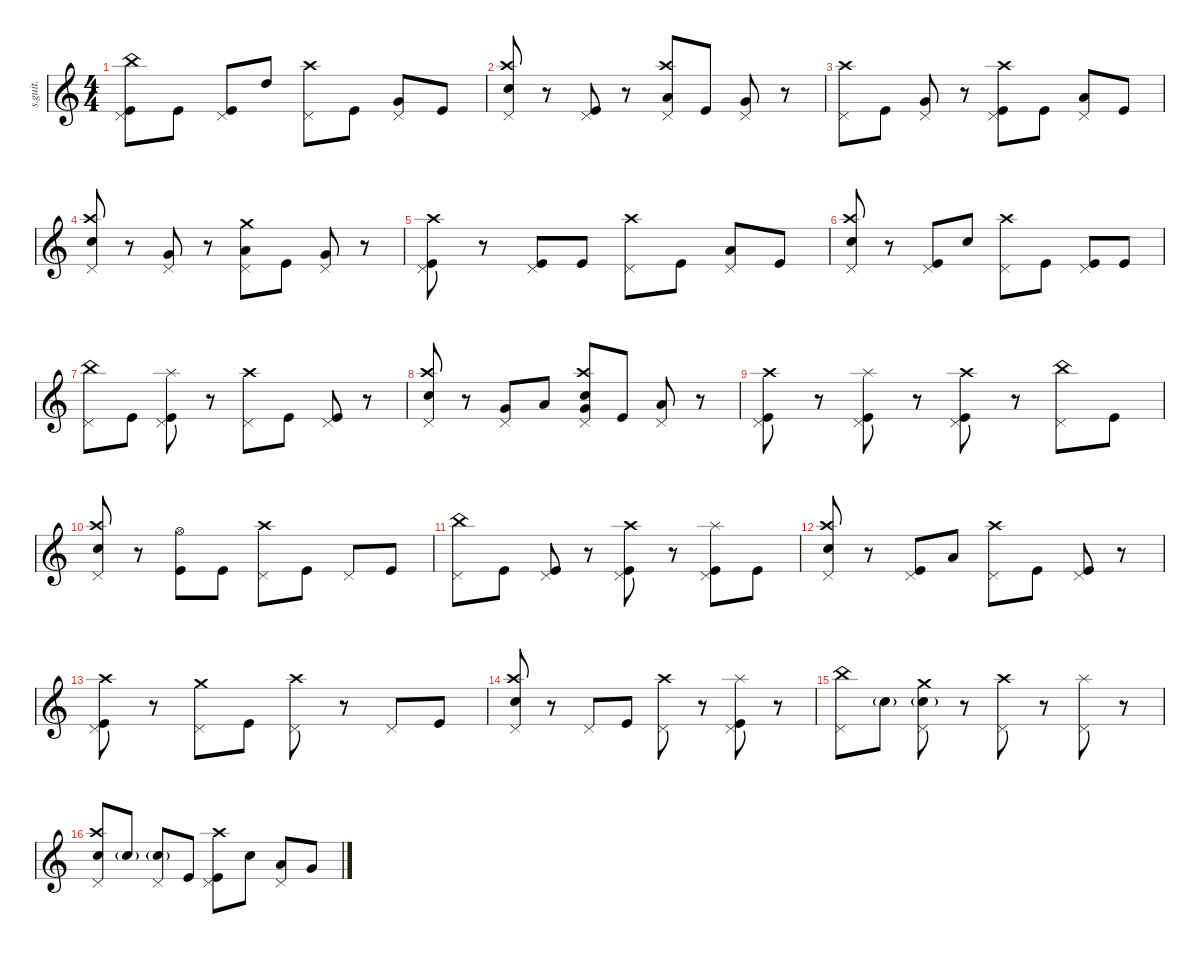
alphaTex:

\defaultSystemsLayout 4
\hideDynamics
\bracketExtendMode nobrackets
\track ("Matt Halpern" "s.guit.") {instrument percussion}
\staff {score}
\articulation defaults
\ts (4 4)
\tempo (213 hide)
\clef g2
\ks c
("China (hit)" "Pedal Hi-Hat (hit)" "Kick (hit)").8{lyrics (0 "") lyrics (1 "") lyrics (2 "") lyrics (3 "") lyrics (4 "") dy mf} "Kick (hit)".8{lyrics (0 "") lyrics (1 "") lyrics (2 "") lyrics (3 "") lyrics (4 "")} ("Pedal Hi-Hat (hit)" "Kick (hit)").8{lyrics (0 "") lyrics (1 "") lyrics (2 "") lyrics (3 "") lyrics (4 "")} "High Tom (hit)".8{lyrics (0 "") lyrics (1 "") lyrics (2 "") lyrics (3 "") lyrics (4 "")} ("Crash high (hit)" "Pedal Hi-Hat (hit)").8{lyrics (0 "") lyrics (1 "") lyrics (2 "") lyrics (3 "") lyrics (4 "")} "Kick (hit)".8{lyrics (0 "") lyrics (1 "") lyrics (2 "") lyrics (3 "") lyrics (4 "")} ("Pedal Hi-Hat (hit)" "Very Low Tom (hit)").8{lyrics (0 "") lyrics (1 "") lyrics (2 "") lyrics (3 "") lyrics (4 "")} "Kick (hit)".8{lyrics (0 "") lyrics (1 "") lyrics (2 "") lyrics (3 "") lyrics (4 "")} |
("Crash high (hit)" "Pedal Hi-Hat (hit)" "Snare (hit) 2").8{lyrics (0 "") lyrics (1 "") lyrics (2 "") lyrics (3 "") lyrics (4 "")} r.8 ("Pedal Hi-Hat (hit)" "Kick (hit)").8{lyrics (0 "") lyrics (1 "") lyrics (2 "") lyrics (3 "") lyrics (4 "")} r.8 ("Crash high (hit)" "Pedal Hi-Hat (hit)" "Low Tom (hit)").8{lyrics (0 "") lyrics (1 "") lyrics (2 "") lyrics (3 "") lyrics (4 "")} "Kick (hit)".8{lyrics (0 "") lyrics (1 "") lyrics (2 "") lyrics (3 "") lyrics (4 "")} ("Pedal Hi-Hat (hit)" "Very Low Tom (hit)").8{lyrics (0 "") lyrics (1 "") lyrics (2 "") lyrics (3 "") lyrics (4 "")} r.8 |
("Crash high (hit)" "Pedal Hi-Hat (hit)").8{lyrics (0 "") lyrics (1 "") lyrics (2 "") lyrics (3 "") lyrics (4 "")} "Kick (hit)".8{lyrics (0 "") lyrics (1 "") lyrics (2 "") lyrics (3 "") lyrics (4 "")} ("Pedal Hi-Hat (hit)" "Very Low Tom (hit)").8{lyrics (0 "") lyrics (1 "") lyrics (2 "") lyrics (3 "") lyrics (4 "")} r.8 ("Crash high (hit)" "Pedal Hi-Hat (hit)" "Kick (hit)").8{lyrics (0 "") lyrics (1 "") lyrics (2 "") lyrics (3 "") lyrics (4 "")} "Kick (hit)".8{lyrics (0 "") lyrics (1 "") lyrics (2 "") lyrics (3 "") lyrics (4 "")} ("Pedal Hi-Hat (hit)" "Low Tom (hit)").8{lyrics (0 "") lyrics (1 "") lyrics (2 "") lyrics (3 "") lyrics (4 "")} "Kick (hit)".8{lyrics (0 "") lyrics (1 "") lyrics (2 "") lyrics (3 "") lyrics (4 "")} |
("Crash high (hit)" "Pedal Hi-Hat (hit)" "Snare (hit) 2").8{lyrics (0 "") lyrics (1 "") lyrics (2 "") lyrics (3 "") lyrics (4 "")} r.8 ("Pedal Hi-Hat (hit)" "Very Low Tom (hit)").8{lyrics (0 "") lyrics (1 "") lyrics (2 "") lyrics (3 "") lyrics (4 "")} r.8 ("Crash medium (hit)" "Pedal Hi-Hat (hit)" "Low Tom (hit)").8{lyrics (0 "") lyrics (1 "") lyrics (2 "") lyrics (3 "") lyrics (4 "")} "Kick (hit)".8{lyrics (0 "") lyrics (1 "") lyrics (2 "") lyrics (3 "") lyrics (4 "")} ("Pedal Hi-Hat (hit)" "Very Low Tom (hit)").8{lyrics (0 "") lyrics (1 "") lyrics (2 "") lyrics (3 "") lyrics (4 "")} r.8 |
("Crash high (hit)" "Pedal Hi-Hat (hit)" "Kick (hit)").8{lyrics (0 "") lyrics (1 "") lyrics (2 "") lyrics (3 "") lyrics (4 "")} r.8 ("Pedal Hi-Hat (hit)" "Kick (hit)").8{lyrics (0 "") lyrics (1 "") lyrics (2 "") lyrics (3 "") lyrics (4 "")} "Kick (hit)".8{lyrics (0 "") lyrics (1 "") lyrics (2 "") lyrics (3 "") lyrics (4 "")} ("Crash high (hit)" "Pedal Hi-Hat (hit)").8{lyrics (0 "") lyrics (1 "") lyrics (2 "") lyrics (3 "") lyrics (4 "")} "Kick (hit)".8{lyrics (0 "") lyrics (1 "") lyrics (2 "") lyrics (3 "") lyrics (4 "")} ("Pedal Hi-Hat (hit)" "Low Tom (hit)").8{lyrics (0 "") lyrics (1 "") lyrics (2 "") lyrics (3 "") lyrics (4 "")} "Kick (hit)".8{lyrics (0 "") lyrics (1 "") lyrics (2 "") lyrics (3 "") lyrics (4 "")} |
("Crash high (hit)" "Pedal Hi-Hat (hit)" "Snare (hit) 2").8{lyrics (0 "") lyrics (1 "") lyrics (2 "") lyrics (3 "") lyrics (4 "")} r.8 ("Pedal Hi-Hat (hit)" "Kick (hit)").8{lyrics (0 "") lyrics (1 "") lyrics (2 "") lyrics (3 "") lyrics (4 "")} "Snare (hit) 2".8{lyrics (0 "") lyrics (1 "") lyrics (2 "") lyrics (3 "") lyrics (4 "")} ("Crash high (hit)" "Pedal Hi-Hat (hit)").8{lyrics (0 "") lyrics (1 "") lyrics (2 "") lyrics (3 "") lyrics (4 "")} "Kick (hit)".8{lyrics (0 "") lyrics (1 "") lyrics (2 "") lyrics (3 "") lyrics (4 "")} ("Pedal Hi-Hat (hit)" "Kick (hit)").8{lyrics (0 "") lyrics (1 "") lyrics (2 "") lyrics (3 "") lyrics (4 "")} "Kick (hit)".8{lyrics (0 "") lyrics (1 "") lyrics (2 "") lyrics (3 "") lyrics (4 "")} |
("China (hit)" "Pedal Hi-Hat (hit)").8{lyrics (0 "") lyrics (1 "") lyrics (2 "") lyrics (3 "") lyrics (4 "")} "Kick (hit)".8{lyrics (0 "") lyrics (1 "") lyrics (2 "") lyrics (3 "") lyrics (4 "")} ("Splash (hit)" "Pedal Hi-Hat (hit)" "Kick (hit)").8{lyrics (0 "") lyrics (1 "") lyrics (2 "") lyrics (3 "") lyrics (4 "")} r.8 ("Crash high (hit)" "Pedal Hi-Hat (hit)").8{lyrics (0 "") lyrics (1 "") lyrics (2 "") lyrics (3 "") lyrics (4 "")} "Kick (hit)".8{lyrics (0 "") lyrics (1 "") lyrics (2 "") lyrics (3 "") lyrics (4 "")} ("Pedal Hi-Hat (hit)" "Kick (hit)").8{lyrics (0 "") lyrics (1 "") lyrics (2 "") lyrics (3 "") lyrics (4 "")} r.8 |
("Crash high (hit)" "Pedal Hi-Hat (hit)" "Snare (hit) 2").8{lyrics (0 "") lyrics (1 "") lyrics (2 "") lyrics (3 "") lyrics (4 "")} r.8 ("Pedal Hi-Hat (hit)" "Very Low Tom (hit)").8{lyrics (0 "") lyrics (1 "") lyrics (2 "") lyrics (3 "") lyrics (4 "")} "Low Tom (hit)".8{lyrics (0 "") lyrics (1 "") lyrics (2 "") lyrics (3 "") lyrics (4 "")} ("Crash high (hit)" "Pedal Hi-Hat (hit)" "Snare (hit) 2" "Very Low Tom (hit)").8{lyrics (0 "") lyrics (1 "") lyrics (2 "") lyrics (3 "") lyrics (4 "")} "Kick (hit)".8{lyrics (0 "") lyrics (1 "") lyrics (2 "") lyrics (3 "") lyrics (4 "")} ("Pedal Hi-Hat (hit)" "Low Tom (hit)").8{lyrics (0 "") lyrics (1 "") lyrics (2 "") lyrics (3 "") lyrics (4 "")} r.8 |
("Crash high (hit)" "Pedal Hi-Hat (hit)" "Kick (hit)").8{lyrics (0 "") lyrics (1 "") lyrics (2 "") lyrics (3 "") lyrics (4 "")} r.8 ("Splash (hit)" "Pedal Hi-Hat (hit)" "Kick (hit)").8{lyrics (0 "") lyrics (1 "") lyrics (2 "") lyrics (3 "") lyrics (4 "")} r.8 ("Crash high (hit)" "Pedal Hi-Hat (hit)" "Kick (hit)").8{lyrics (0 "") lyrics (1 "") lyrics (2 "") lyrics (3 "") lyrics (4 "")} r.8 ("China (hit)" "Pedal Hi-Hat (hit)").8{lyrics (0 "") lyrics (1 "") lyrics (2 "") lyrics (3 "") lyrics (4 "")} "Kick (hit)".8{lyrics (0 "") lyrics (1 "") lyrics (2 "") lyrics (3 "") lyrics (4 "")} |
("Crash high (hit)" "Pedal Hi-Hat (hit)" "Snare (hit) 2").8{lyrics (0 "") lyrics (1 "") lyrics (2 "") lyrics (3 "") lyrics (4 "")} r.8 ("Hi-Hat (open)" "Kick (hit)").8{lyrics (0 "") lyrics (1 "") lyrics (2 "") lyrics (3 "") lyrics (4 "")} "Kick (hit)".8{lyrics (0 "") lyrics (1 "") lyrics (2 "") lyrics (3 "") lyrics (4 "")} ("Crash high (hit)" "Pedal Hi-Hat (hit)").8{lyrics (0 "") lyrics (1 "") lyrics (2 "") lyrics (3 "") lyrics (4 "")} "Kick (hit)".8{lyrics (0 "") lyrics (1 "") lyrics (2 "") lyrics (3 "") lyrics (4 "")} "Pedal Hi-Hat (hit)".8{lyrics (0 "") lyrics (1 "") lyrics (2 "") lyrics (3 "") lyrics (4 "")} "Kick (hit)".8{lyrics (0 "") lyrics (1 "") lyrics (2 "") lyrics (3 "") lyrics (4 "")} |
("China (hit)" "Pedal Hi-Hat (hit)").8{lyrics (0 "") lyrics (1 "") lyrics (2 "") lyrics (3 "") lyrics (4 "")} "Kick (hit)".8{lyrics (0 "") lyrics (1 "") lyrics (2 "") lyrics (3 "") lyrics (4 "")} ("Pedal Hi-Hat (hit)" "Kick (hit)").8{lyrics (0 "") lyrics (1 "") lyrics (2 "") lyrics (3 "") lyrics (4 "")} r.8 ("Crash high (hit)" "Pedal Hi-Hat (hit)" "Kick (hit)").8{lyrics (0 "") lyrics (1 "") lyrics (2 "") lyrics (3 "") lyrics (4 "")} r.8 ("Splash (hit)" "Pedal Hi-Hat (hit)" "Kick (hit)").8{lyrics (0 "") lyrics (1 "") lyrics (2 "") lyrics (3 "") lyrics (4 "")} "Kick (hit)".8{lyrics (0 "") lyrics (1 "") lyrics (2 "") lyrics (3 "") lyrics (4 "")} |
("Crash high (hit)" "Pedal Hi-Hat (hit)" "Snare (hit) 2").8{lyrics (0 "") lyrics (1 "") lyrics (2 "") lyrics (3 "") lyrics (4 "")} r.8 ("Pedal Hi-Hat (hit)" "Kick (hit)").8{lyrics (0 "") lyrics (1 "") lyrics (2 "") lyrics (3 "") lyrics (4 "")} "Low Tom (hit)".8{lyrics (0 "") lyrics (1 "") lyrics (2 "") lyrics (3 "") lyrics (4 "")} ("Crash high (hit)" "Pedal Hi-Hat (hit)").8{lyrics (0 "") lyrics (1 "") lyrics (2 "") lyrics (3 "") lyrics (4 "")} "Kick (hit)".8{lyrics (0 "") lyrics (1 "") lyrics (2 "") lyrics (3 "") lyrics (4 "")} ("Pedal Hi-Hat (hit)" "Kick (hit)").8{lyrics (0 "") lyrics (1 "") lyrics (2 "") lyrics (3 "") lyrics (4 "")} r.8 |
("Crash high (hit)" "Pedal Hi-Hat (hit)" "Kick (hit)").8{lyrics (0 "") lyrics (1 "") lyrics (2 "") lyrics (3 "") lyrics (4 "")} r.8 ("Crash medium (hit)" "Pedal Hi-Hat (hit)").8{lyrics (0 "") lyrics (1 "") lyrics (2 "") lyrics (3 "") lyrics (4 "")} "Kick (hit)".8{lyrics (0 "") lyrics (1 "") lyrics (2 "") lyrics (3 "") lyrics (4 "")} ("Crash high (hit)" "Pedal Hi-Hat (hit)").8{lyrics (0 "") lyrics (1 "") lyrics (2 "") lyrics (3 "") lyrics (4 "")} r.8 "Pedal Hi-Hat (hit)".8{lyrics (0 "") lyrics (1 "") lyrics (2 "") lyrics (3 "") lyrics (4 "")} "Kick (hit)".8{lyrics (0 "") lyrics (1 "") lyrics (2 "") lyrics (3 "") lyrics (4 "")} |
("Crash high (hit)" "Pedal Hi-Hat (hit)" "Snare (hit) 2").8{lyrics (0 "") lyrics (1 "") lyrics (2 "") lyrics (3 "") lyrics (4 "")} r.8 "Pedal Hi-Hat (hit)".8{lyrics (0 "") lyrics (1 "") lyrics (2 "") lyrics (3 "") lyrics (4 "")} "Kick (hit)".8{lyrics (0 "") lyrics (1 "") lyrics (2 "") lyrics (3 "") lyrics (4 "")} ("Crash high (hit)" "Pedal Hi-Hat (hit)").8{lyrics (0 "") lyrics (1 "") lyrics (2 "") lyrics (3 "") lyrics (4 "")} r.8 ("Splash (hit)" "Pedal Hi-Hat (hit)" "Kick (hit)").8{lyrics (0 "") lyrics (1 "") lyrics (2 "") lyrics (3 "") lyrics (4 "")} r.8 |
("China (hit)" "Pedal Hi-Hat (hit)").8{lyrics (0 "") lyrics (1 "") lyrics (2 "") lyrics (3 "") lyrics (4 "")} "Snare (hit) 2"{g}.8{lyrics (0 "") lyrics (1 "") lyrics (2 "") lyrics (3 "") lyrics (4 "")} ("Crash medium (hit)" "Pedal Hi-Hat (hit)" "Snare (hit) 2"{g}).8{lyrics (0 "") lyrics (1 "") lyrics (2 "") lyrics (3 "") lyrics (4 "")} r.8 ("Crash high (hit)" "Pedal Hi-Hat (hit)").8{lyrics (0 "") lyrics (1 "") lyrics (2 "") lyrics (3 "") lyrics (4 "")} r.8 ("Splash (hit)" "Pedal Hi-Hat (hit)").8{lyrics (0 "") lyrics (1 "") lyrics (2 "") lyrics (3 "") lyrics (4 "")} r.8 |
("Crash high (hit)" "Pedal Hi-Hat (hit)" "Snare (hit) 2").8{lyrics (0 "") lyrics (1 "") lyrics (2 "") lyrics (3 "") lyrics (4 "")} "Snare (hit) 2"{g}.8{lyrics (0 "") lyrics (1 "") lyrics (2 "") lyrics (3 "") lyrics (4 "")} ("Pedal Hi-Hat (hit)" "Snare (hit) 2"{g}).8{lyrics (0 "") lyrics (1 "") lyrics (2 "") lyrics (3 "") lyrics (4 "")} "Kick (hit)".8{lyrics (0 "") lyrics (1 "") lyrics (2 "") lyrics (3 "") lyrics (4 "")} ("Crash high (hit)" "Pedal Hi-Hat (hit)" "Kick (hit)").8{lyrics (0 "") lyrics (1 "") lyrics (2 "") lyrics (3 "") lyrics (4 "")} "Snare (hit) 2".8{lyrics (0 "") lyrics (1 "") lyrics (2 "") lyrics (3 "") lyrics (4 "")} ("Pedal Hi-Hat (hit)" "Low Tom (hit)").8{lyrics (0 "") lyrics (1 "") lyrics (2 "") lyrics (3 "") lyrics (4 "")} "Very Low Tom (hit)".8{lyrics (0 "") lyrics (1 "") lyrics (2 "") lyrics (3 "") lyrics (4 "")}
